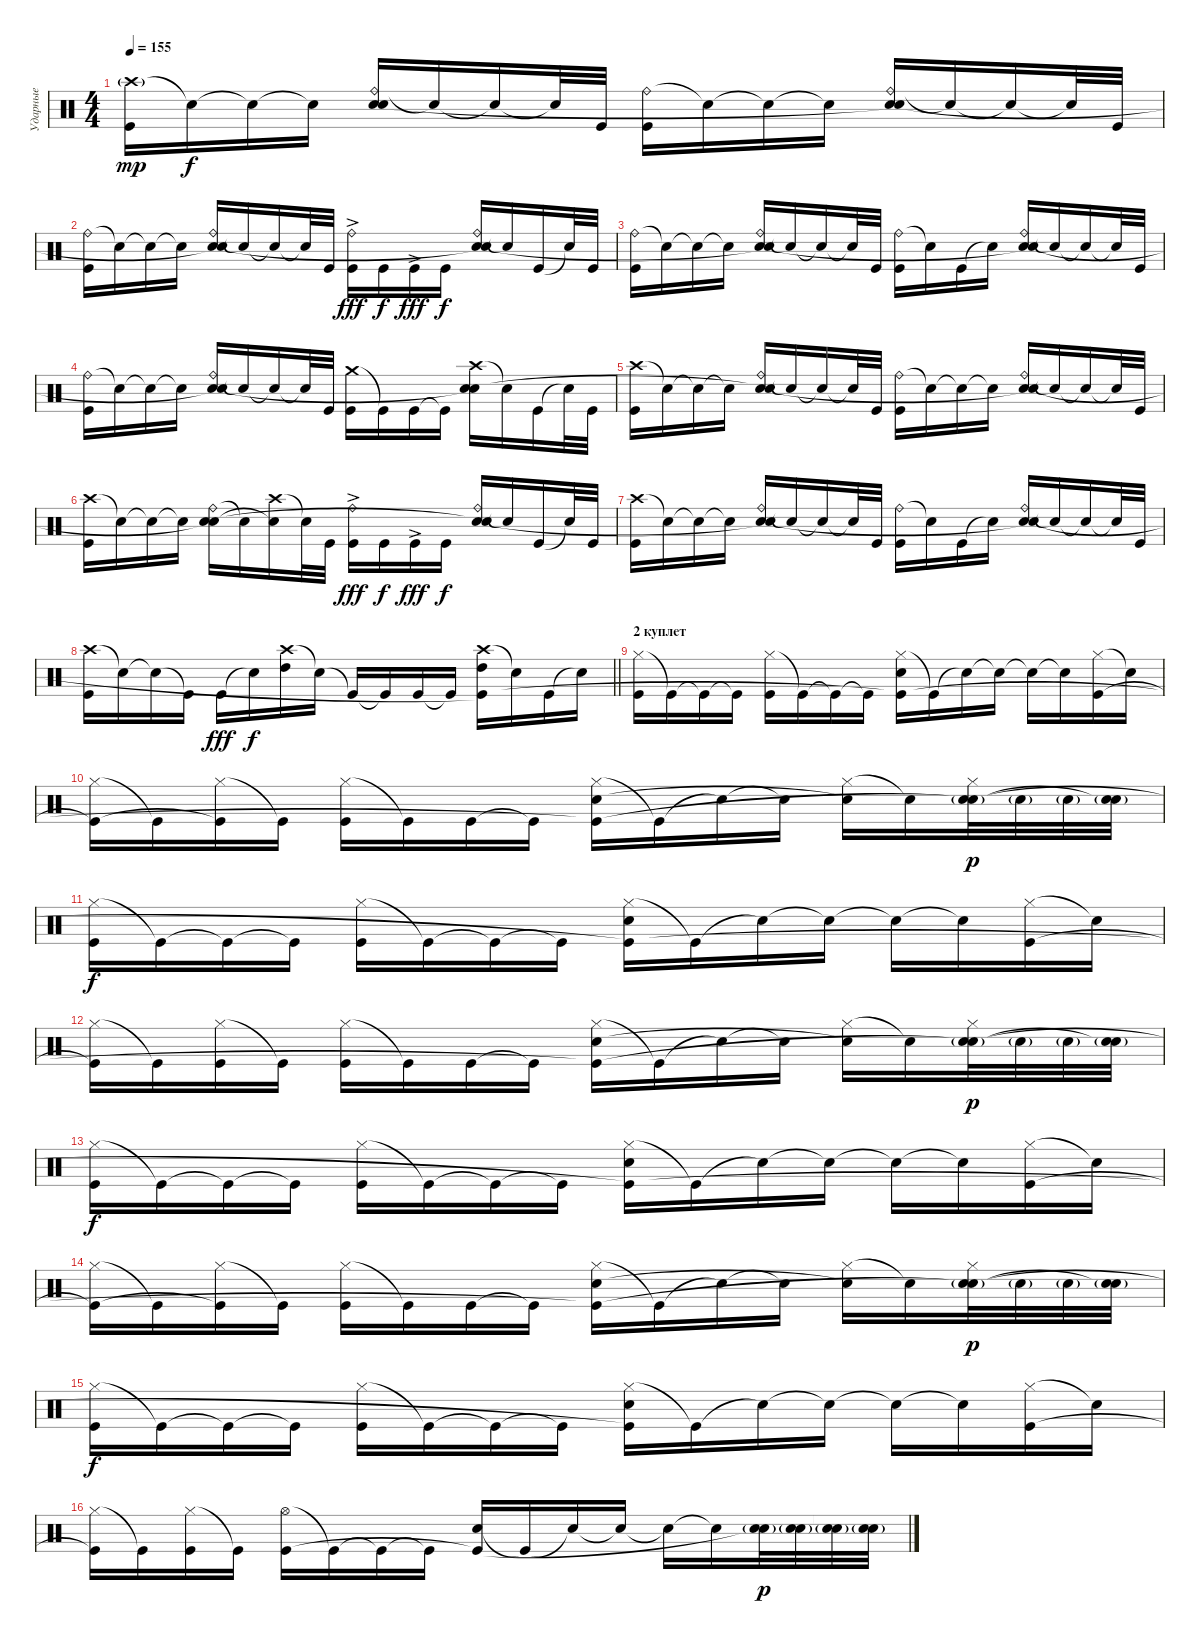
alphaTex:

\track ("Ударные" "Ударные") {instrument percussion}
\staff {score}
\articulation defaults
\ts (4 4)
\tempo 155
\clef neutral
\ks c
("Crash high (hit)"{g} "Kick (hit)").16{dy mp} "Snare (hit)"{t}.16{dy f} "Snare (hit)"{t}.16 "Snare (hit)"{t}.16 ("Ride (bell)" "Electric Snare (hit)" "Snare (hit)"{t}).16 "Snare (hit)"{t}.16 "Snare (hit)"{t}.16 "Snare (hit)"{t}.32 "Kick (hit)".32 ("Ride (bell)" "Kick (hit)").16 "Snare (hit)"{t}.16 "Snare (hit)"{t}.16 "Snare (hit)"{t}.16 ("Ride (bell)" "Electric Snare (hit)" "Snare (hit)"{t}).16 "Snare (hit)"{t}.16 "Snare (hit)"{t}.16 "Snare (hit)"{t}.32 "Kick (hit)".32 |
("Ride (bell)" "Kick (hit)").16 "Snare (hit)"{t}.16 "Snare (hit)"{t}.16 "Snare (hit)"{t}.16 ("Ride (bell)" "Electric Snare (hit)" "Snare (hit)"{t}).16 "Snare (hit)"{t}.16 "Snare (hit)"{t}.16 "Snare (hit)"{t}.32 "Kick (hit)".32 ("Ride (bell)" "Kick (hit)"{ac}).16{dy fff} "Kick (hit)".16{dy f} "Kick (hit)"{ac}.16{dy fff} "Kick (hit)".16{dy f} ("Ride (bell)" "Electric Snare (hit)" "Snare (hit)"{t}).16 "Snare (hit)"{t}.16 "Kick (hit)".16 "Snare (hit)"{t}.32 "Kick (hit)".32 |
("Ride (bell)" "Kick (hit)").16 "Snare (hit)"{t}.16 "Snare (hit)"{t}.16 "Snare (hit)"{t}.16 ("Ride (bell)" "Electric Snare (hit)" "Snare (hit)"{t}).16 "Snare (hit)"{t}.16 "Snare (hit)"{t}.16 "Snare (hit)"{t}.32 "Kick (hit)".32 ("Ride (bell)" "Kick (hit)").16 "Snare (hit)"{t}.16 "Kick (hit)".16 "Snare (hit)"{t}.16 ("Ride (bell)" "Electric Snare (hit)" "Snare (hit)"{t}).16 "Snare (hit)"{t}.16 "Snare (hit)"{t}.16 "Snare (hit)"{t}.32 "Kick (hit)".32 |
("Ride (bell)" "Kick (hit)").16 "Snare (hit)"{t}.16 "Snare (hit)"{t}.16 "Snare (hit)"{t}.16 ("Ride (bell)" "Electric Snare (hit)" "Snare (hit)"{t}).16 "Snare (hit)"{t}.16 "Snare (hit)"{t}.16 "Snare (hit)"{t}.32 "Kick (hit)".32 ("Crash medium (hit)" "Kick (hit)").16 "Kick (hit)"{t}.16 "Kick (hit)".16 "Kick (hit)"{t}.16 ("Crash high (hit)" "Electric Snare (hit)" "Snare (hit)"{t}).16 "Snare (hit)"{t}.16 "Kick (hit)".16 "Snare (hit)"{t}.32 "Kick (hit)".32 |
("Crash high (hit)" "Kick (hit)").16 "Snare (hit)"{t}.16 "Snare (hit)"{t}.16 "Snare (hit)"{t}.16 ("Ride (bell)" "Electric Snare (hit)" "Snare (hit)"{t}).16 "Snare (hit)"{t}.16 "Snare (hit)"{t}.16 "Snare (hit)"{t}.32 "Kick (hit)".32 ("Ride (bell)" "Kick (hit)").16 "Snare (hit)"{t}.16 "Snare (hit)"{t}.16 "Snare (hit)"{t}.16 ("Ride (bell)" "Electric Snare (hit)" "Snare (hit)"{t}).16 "Snare (hit)"{t}.16 "Snare (hit)"{t}.16 "Snare (hit)"{t}.32 "Kick (hit)".32 |
("Crash high (hit)" "Kick (hit)").16 "Snare (hit)"{t}.16 "Snare (hit)"{t}.16 "Snare (hit)"{t}.16 ("Ride (bell)" "Electric Snare (hit)" "Snare (hit)"{t}).16 "Snare (hit)"{t}.16 ("Crash high (hit)" "Snare (hit)"{t}).16 "Snare (hit)"{t}.32 "Kick (hit)".32 ("Ride (bell)" "Kick (hit)"{ac}).16{dy fff} "Kick (hit)".16{dy f} "Kick (hit)"{ac}.16{dy fff} "Kick (hit)".16{dy f} ("Ride (bell)" "Electric Snare (hit)" "Snare (hit)"{t}).16 "Snare (hit)"{t}.16 "Kick (hit)".16 "Snare (hit)"{t}.32 "Kick (hit)".32 |
("Crash high (hit)" "Kick (hit)").16 "Snare (hit)"{t}.16 "Snare (hit)"{t}.16 "Snare (hit)"{t}.16 ("Ride (bell)" "Electric Snare (hit)" "Snare (hit)"{t}).16 "Snare (hit)"{t}.16 "Snare (hit)"{t}.16 "Snare (hit)"{t}.32 "Kick (hit)".32 ("Ride (bell)" "Kick (hit)").16 "Snare (hit)"{t}.16 "Kick (hit)".16 "Snare (hit)"{t}.16 ("Ride (bell)" "Electric Snare (hit)" "Snare (hit)"{t}).16 "Snare (hit)"{t}.16 "Snare (hit)"{t}.16 "Snare (hit)"{t}.32 "Kick (hit)".32 |
\barLineRight lightlight
("Crash high (hit)" "Kick (hit)").16 "Snare (hit)"{t}.16 "Snare (hit)"{t}.16 "Kick (hit)"{t}.16 "Kick (hit)".16{dy fff} "Snare (hit)"{t}.16{dy f} ("Crash high (hit)" "High Tom (hit)").16 "Snare (hit)"{t}.16 "Kick (hit)"{t}.16 "Kick (hit)"{t}.16 "Kick (hit)".16 "Kick (hit)"{t}.16 ("Crash high (hit)" "High Tom (hit)" "Kick (hit)"{t}).16 "Snare (hit)"{t}.16 "Kick (hit)".16 "Snare (hit)"{t}.16 |
\section ("" "2 куплет")
("Hi-Hat (closed)" "Kick (hit)").16 "Kick (hit)"{t}.16 "Kick (hit)"{t}.16 "Kick (hit)"{t}.16 ("Hi-Hat (closed)" "Kick (hit)").16 "Kick (hit)"{t}.16 "Kick (hit)"{t}.16 "Kick (hit)"{t}.16 ("Hi-Hat (closed)" "Electric Snare (hit)" "Kick (hit)"{t}).16 "Kick (hit)"{t}.16 "Snare (hit)"{t}.16 "Snare (hit)"{t}.16 "Snare (hit)"{t}.16 "Snare (hit)"{t}.16 ("Hi-Hat (closed)" "Kick (hit)").16 "Snare (hit)"{t}.16 |
("Hi-Hat (closed)" "Kick (hit)"{t}).16 "Kick (hit)"{t}.16 ("Hi-Hat (closed)" "Kick (hit)"{t}).16 "Kick (hit)"{t}.16 ("Hi-Hat (closed)" "Kick (hit)").16 "Kick (hit)"{t}.16 "Kick (hit)".16 "Kick (hit)"{t}.16 ("Hi-Hat (closed)" "Electric Snare (hit)" "Kick (hit)"{t}).16 "Kick (hit)"{t}.16 "Snare (hit)"{t}.16 "Snare (hit)"{t}.16 ("Hi-Hat (closed)" "Snare (hit)"{t}).16 "Snare (hit)"{t}.16 ("Hi-Hat (closed)" "Electric Snare (hit)"{g} "Snare (hit)"{t}).32{dy p} "Electric Snare (hit)"{g}.32 "Electric Snare (hit)"{g}.32 ("Electric Snare (hit)"{g} "Snare (hit)"{t}).32 |
("Hi-Hat (closed)" "Kick (hit)").16{dy f} "Kick (hit)"{t}.16 "Kick (hit)"{t}.16 "Kick (hit)"{t}.16 ("Hi-Hat (closed)" "Kick (hit)").16 "Kick (hit)"{t}.16 "Kick (hit)"{t}.16 "Kick (hit)"{t}.16 ("Hi-Hat (closed)" "Electric Snare (hit)" "Kick (hit)"{t}).16 "Kick (hit)"{t}.16 "Snare (hit)"{t}.16 "Snare (hit)"{t}.16 "Snare (hit)"{t}.16 "Snare (hit)"{t}.16 ("Hi-Hat (closed)" "Kick (hit)").16 "Snare (hit)"{t}.16 |
("Hi-Hat (closed)" "Kick (hit)"{t}).16 "Kick (hit)"{t}.16 ("Hi-Hat (closed)" "Kick (hit)").16 "Kick (hit)"{t}.16 ("Hi-Hat (closed)" "Kick (hit)").16 "Kick (hit)"{t}.16 "Kick (hit)".16 "Kick (hit)"{t}.16 ("Hi-Hat (closed)" "Electric Snare (hit)" "Kick (hit)"{t}).16 "Kick (hit)"{t}.16 "Snare (hit)"{t}.16 "Snare (hit)"{t}.16 ("Hi-Hat (closed)" "Snare (hit)"{t}).16 "Snare (hit)"{t}.16 ("Hi-Hat (closed)" "Electric Snare (hit)"{g} "Snare (hit)"{t}).32{dy p} "Electric Snare (hit)"{g}.32 "Electric Snare (hit)"{g}.32 ("Electric Snare (hit)"{g} "Snare (hit)"{t}).32 |
("Hi-Hat (closed)" "Kick (hit)").16{dy f} "Kick (hit)"{t}.16 "Kick (hit)"{t}.16 "Kick (hit)"{t}.16 ("Hi-Hat (closed)" "Kick (hit)").16 "Kick (hit)"{t}.16 "Kick (hit)"{t}.16 "Kick (hit)"{t}.16 ("Hi-Hat (closed)" "Electric Snare (hit)" "Kick (hit)"{t}).16 "Kick (hit)"{t}.16 "Snare (hit)"{t}.16 "Snare (hit)"{t}.16 "Snare (hit)"{t}.16 "Snare (hit)"{t}.16 ("Hi-Hat (closed)" "Kick (hit)").16 "Snare (hit)"{t}.16 |
("Hi-Hat (closed)" "Kick (hit)"{t}).16 "Kick (hit)"{t}.16 ("Hi-Hat (closed)" "Kick (hit)"{t}).16 "Kick (hit)"{t}.16 ("Hi-Hat (closed)" "Kick (hit)").16 "Kick (hit)"{t}.16 "Kick (hit)".16 "Kick (hit)"{t}.16 ("Hi-Hat (closed)" "Electric Snare (hit)" "Kick (hit)"{t}).16 "Kick (hit)"{t}.16 "Snare (hit)"{t}.16 "Snare (hit)"{t}.16 ("Hi-Hat (closed)" "Snare (hit)"{t}).16 "Snare (hit)"{t}.16 ("Hi-Hat (closed)" "Electric Snare (hit)"{g} "Snare (hit)"{t}).32{dy p} "Electric Snare (hit)"{g}.32 "Electric Snare (hit)"{g}.32 ("Electric Snare (hit)"{g} "Snare (hit)"{t}).32 |
("Hi-Hat (closed)" "Kick (hit)").16{dy f} "Kick (hit)"{t}.16 "Kick (hit)"{t}.16 "Kick (hit)"{t}.16 ("Hi-Hat (closed)" "Kick (hit)").16 "Kick (hit)"{t}.16 "Kick (hit)"{t}.16 "Kick (hit)"{t}.16 ("Hi-Hat (closed)" "Electric Snare (hit)" "Kick (hit)"{t}).16 "Kick (hit)"{t}.16 "Snare (hit)"{t}.16 "Snare (hit)"{t}.16 "Snare (hit)"{t}.16 "Snare (hit)"{t}.16 ("Hi-Hat (closed)" "Kick (hit)").16 "Snare (hit)"{t}.16 |
("Hi-Hat (closed)" "Kick (hit)"{t}).16 "Kick (hit)"{t}.16 ("Hi-Hat (closed)" "Kick (hit)").16 "Kick (hit)"{t}.16 ("Hi-Hat (open)" "Kick (hit)").16 "Kick (hit)"{t}.16 "Kick (hit)"{t}.16 "Kick (hit)"{t}.16 ("Electric Snare (hit)" "Kick (hit)"{t}).16 "Kick (hit)"{t}.16 "Snare (hit)"{t}.16 "Snare (hit)"{t}.16 "Snare (hit)"{t}.16 "Snare (hit)"{t}.16 ("Electric Snare (hit)"{g} "Snare (hit)"{t}).32{dy p} ("Electric Snare (hit)"{g} "Snare (hit)"{t}).32 ("Electric Snare (hit)"{g} "Snare (hit)"{t}).32 ("Electric Snare (hit)"{g} "Snare (hit)"{t}).32
